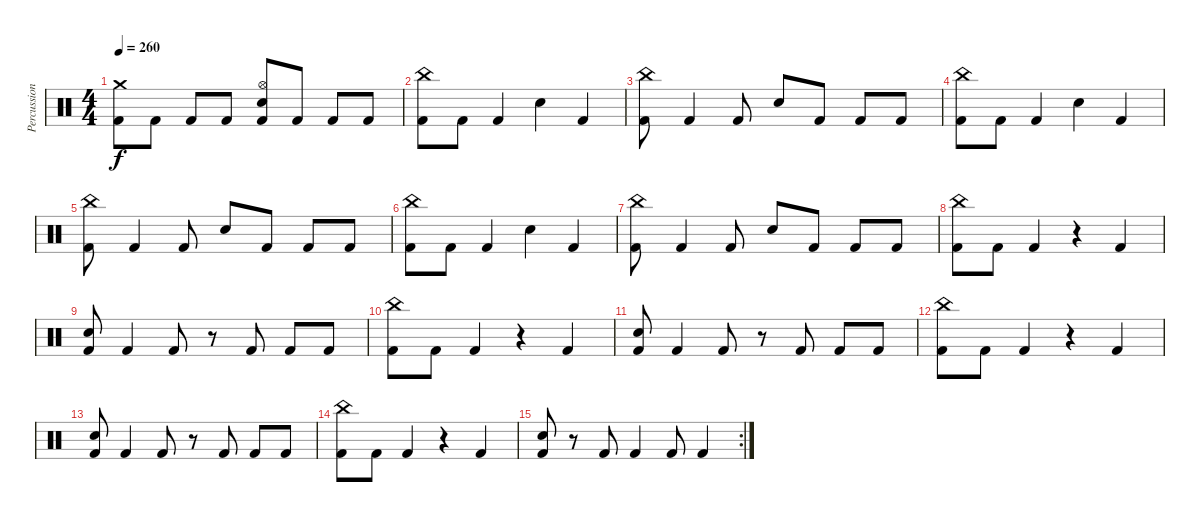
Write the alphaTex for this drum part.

\track ("Percussion" "Percussion") {instrument percussion}
\staff {score}
\articulation defaults
\ts (4 4)
\tempo 260
\clef neutral
\ks c
("Crash medium (hit)" "Kick (hit) 2").8{dy f} "Kick (hit) 2".8 "Kick (hit) 2".8 "Kick (hit) 2".8 ("Hi-Hat (open)" "Electric Snare (hit)" "Kick (hit) 2").8 "Kick (hit) 2".8 "Kick (hit) 2".8 "Kick (hit) 2".8 |
("China (hit)" "Kick (hit) 2").8 "Kick (hit) 2".8 "Kick (hit) 2".4 "Electric Snare (hit)".4 "Kick (hit) 2".4 |
("China (hit)" "Kick (hit) 2").8 "Kick (hit) 2".4 "Kick (hit) 2".8 "Electric Snare (hit)".8 "Kick (hit) 2".8 "Kick (hit) 2".8 "Kick (hit) 2".8 |
("China (hit)" "Kick (hit) 2").8 "Kick (hit) 2".8 "Kick (hit) 2".4 "Electric Snare (hit)".4 "Kick (hit) 2".4 |
("China (hit)" "Kick (hit) 2").8 "Kick (hit) 2".4 "Kick (hit) 2".8 "Electric Snare (hit)".8 "Kick (hit) 2".8 "Kick (hit) 2".8 "Kick (hit) 2".8 |
("China (hit)" "Kick (hit) 2").8 "Kick (hit) 2".8 "Kick (hit) 2".4 "Electric Snare (hit)".4 "Kick (hit) 2".4 |
("China (hit)" "Kick (hit) 2").8 "Kick (hit) 2".4 "Kick (hit) 2".8 "Electric Snare (hit)".8 "Kick (hit) 2".8 "Kick (hit) 2".8 "Kick (hit) 2".8 |
("China (hit)" "Kick (hit) 2").8 "Kick (hit) 2".8 "Kick (hit) 2".4 r.4 "Kick (hit) 2".4 |
("Electric Snare (hit)" "Kick (hit) 2").8 "Kick (hit) 2".4 "Kick (hit) 2".8 r.8 "Kick (hit) 2".8 "Kick (hit) 2".8 "Kick (hit) 2".8 |
("China (hit)" "Kick (hit) 2").8 "Kick (hit) 2".8 "Kick (hit) 2".4 r.4 "Kick (hit) 2".4 |
("Electric Snare (hit)" "Kick (hit) 2").8 "Kick (hit) 2".4 "Kick (hit) 2".8 r.8 "Kick (hit) 2".8 "Kick (hit) 2".8 "Kick (hit) 2".8 |
("China (hit)" "Kick (hit) 2").8 "Kick (hit) 2".8 "Kick (hit) 2".4 r.4 "Kick (hit) 2".4 |
("Electric Snare (hit)" "Kick (hit) 2").8 "Kick (hit) 2".4 "Kick (hit) 2".8 r.8 "Kick (hit) 2".8 "Kick (hit) 2".8 "Kick (hit) 2".8 |
("China (hit)" "Kick (hit) 2").8 "Kick (hit) 2".8 "Kick (hit) 2".4 r.4 "Kick (hit) 2".4 |
\rc 2
("Electric Snare (hit)" "Kick (hit) 2").8 r.8 "Kick (hit) 2".8 "Kick (hit) 2".4 "Kick (hit) 2".8 "Kick (hit) 2".4
